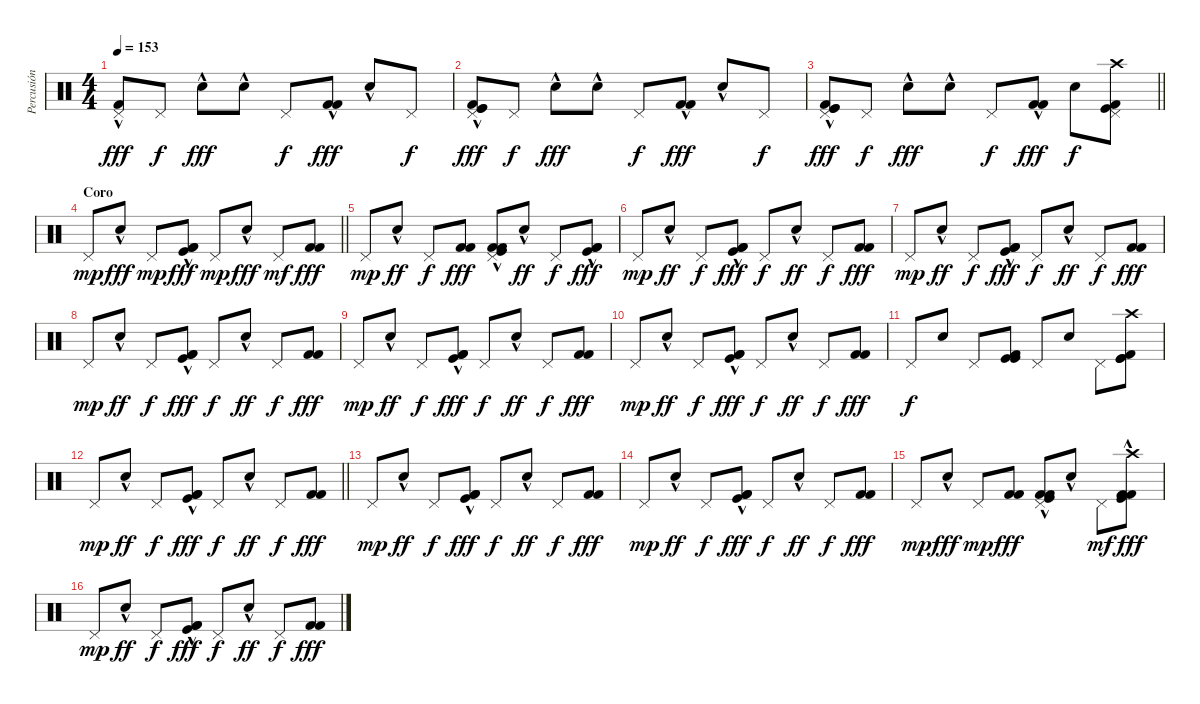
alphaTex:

\track ("Percusión (Javi Molina)" "Percusión ") {instrument percussion}
\staff {score}
\articulation defaults
\ts (4 4)
\tempo 153
\clef neutral
\ks c
("Kick (hit) 2"{hac} "Pedal Hi-Hat (hit)").8{dy fff} "Pedal Hi-Hat (hit)".8{dy f} "Electric Snare (hit)"{hac}.8{dy fff} "Electric Snare (hit)"{hac}.8 "Pedal Hi-Hat (hit)".8{dy f} ("Kick (hit) 2"{hac} "Kick (hit) 2"{hac}).8{dy fff} "Electric Snare (hit)"{hac}.8 "Pedal Hi-Hat (hit)".8{dy f} |
("Kick (hit)"{hac} "Kick (hit) 2"{hac} "Kick (hit)"{hac} "Pedal Hi-Hat (hit)").8{dy fff} "Pedal Hi-Hat (hit)".8{dy f} "Electric Snare (hit)"{hac}.8{dy fff} "Electric Snare (hit)"{hac}.8 "Pedal Hi-Hat (hit)".8{dy f} ("Kick (hit) 2"{hac} "Kick (hit) 2"{hac}).8{dy fff} "Electric Snare (hit)"{hac}.8 "Pedal Hi-Hat (hit)".8{dy f} |
\barLineRight lightlight
("Kick (hit)"{hac} "Kick (hit) 2"{hac} "Kick (hit)"{hac} "Pedal Hi-Hat (hit)").8{dy fff} "Pedal Hi-Hat (hit)".8{dy f} "Electric Snare (hit)"{hac}.8{dy fff} "Electric Snare (hit)"{hac}.8 "Pedal Hi-Hat (hit)".8{dy f} ("Kick (hit) 2"{hac} "Kick (hit) 2"{hac}).8{dy fff} "Electric Snare (hit)".8{dy f} ("Pedal Hi-Hat (hit)" "Kick (hit) 2" "Kick (hit)" "Crash high (hit)").8 |
\section ("" "Coro")
\barLineRight lightlight "Pedal Hi-Hat (hit)".8{dy mp} "Electric Snare (hit)"{hac}.8{dy fff} "Pedal Hi-Hat (hit)".8{dy mp}
("Kick (hit) 2"{hac} "Kick (hit) 2"{hac} "Kick (hit)"{hac}).8{dy fff} "Pedal Hi-Hat (hit)".8{dy mp} "Electric Snare (hit)"{hac}.8{dy fff} "Pedal Hi-Hat (hit)".8{dy mf} ("Kick (hit) 2" "Kick (hit) 2").8{dy fff} |
"Pedal Hi-Hat (hit)".8{dy mp} "Electric Snare (hit)"{hac}.8{dy ff} "Pedal Hi-Hat (hit)".8{dy f} ("Kick (hit) 2" "Kick (hit) 2").8{dy fff} ("Pedal Hi-Hat (hit)" "Kick (hit) 2"{hac} "Kick (hit) 2"{hac} "Kick (hit)"{hac}).8 "Electric Snare (hit)"{hac}.8{dy ff} "Pedal Hi-Hat (hit)".8{dy f} ("Kick (hit) 2"{hac} "Kick (hit) 2"{hac} "Kick (hit)"{hac}).8{dy fff} |
"Pedal Hi-Hat (hit)".8{dy mp} "Electric Snare (hit)"{hac}.8{dy ff} "Pedal Hi-Hat (hit)".8{dy f} ("Kick (hit) 2"{hac} "Kick (hit) 2"{hac} "Kick (hit)"{hac}).8{dy fff} "Pedal Hi-Hat (hit)".8{dy f} "Electric Snare (hit)"{hac}.8{dy ff} "Pedal Hi-Hat (hit)".8{dy f} ("Kick (hit) 2" "Kick (hit) 2").8{dy fff} |
"Pedal Hi-Hat (hit)".8{dy mp} "Electric Snare (hit)"{hac}.8{dy ff} "Pedal Hi-Hat (hit)".8{dy f} ("Kick (hit) 2"{hac} "Kick (hit) 2"{hac} "Kick (hit)"{hac}).8{dy fff} "Pedal Hi-Hat (hit)".8{dy f} "Electric Snare (hit)"{hac}.8{dy ff} "Pedal Hi-Hat (hit)".8{dy f} ("Kick (hit) 2" "Kick (hit) 2").8{dy fff} |
"Pedal Hi-Hat (hit)".8{dy mp} "Electric Snare (hit)"{hac}.8{dy ff} "Pedal Hi-Hat (hit)".8{dy f} ("Kick (hit) 2"{hac} "Kick (hit) 2"{hac} "Kick (hit)"{hac}).8{dy fff} "Pedal Hi-Hat (hit)".8{dy f} "Electric Snare (hit)"{hac}.8{dy ff} "Pedal Hi-Hat (hit)".8{dy f} ("Kick (hit) 2" "Kick (hit) 2").8{dy fff} |
"Pedal Hi-Hat (hit)".8{dy mp} "Electric Snare (hit)"{hac}.8{dy ff} "Pedal Hi-Hat (hit)".8{dy f} ("Kick (hit) 2"{hac} "Kick (hit) 2"{hac} "Kick (hit)"{hac}).8{dy fff} "Pedal Hi-Hat (hit)".8{dy f} "Electric Snare (hit)"{hac}.8{dy ff} "Pedal Hi-Hat (hit)".8{dy f} ("Kick (hit) 2" "Kick (hit) 2").8{dy fff} |
"Pedal Hi-Hat (hit)".8{dy mp} "Electric Snare (hit)"{hac}.8{dy ff} "Pedal Hi-Hat (hit)".8{dy f} ("Kick (hit) 2"{hac} "Kick (hit) 2"{hac} "Kick (hit)"{hac}).8{dy fff} "Pedal Hi-Hat (hit)".8{dy f} "Electric Snare (hit)"{hac}.8{dy ff} "Pedal Hi-Hat (hit)".8{dy f} ("Kick (hit) 2" "Kick (hit) 2").8{dy fff} |
"Pedal Hi-Hat (hit)".8{dy f} "Electric Snare (hit)".8 "Pedal Hi-Hat (hit)".8 ("Kick (hit) 2" "Kick (hit)" "Kick (hit)").8 "Pedal Hi-Hat (hit)".8 "Electric Snare (hit)".8 "Pedal Hi-Hat (hit)".8 ("Kick (hit) 2" "Kick (hit)" "Kick (hit)" "Crash high (hit)").8 |
\barLineRight lightlight "Pedal Hi-Hat (hit)".8{dy mp} "Electric Snare (hit)"{hac}.8{dy ff} "Pedal Hi-Hat (hit)".8{dy f}
("Kick (hit) 2"{hac} "Kick (hit) 2"{hac} "Kick (hit)"{hac}).8{dy fff} "Pedal Hi-Hat (hit)".8{dy f} "Electric Snare (hit)"{hac}.8{dy ff} "Pedal Hi-Hat (hit)".8{dy f} ("Kick (hit) 2" "Kick (hit) 2").8{dy fff} |
"Pedal Hi-Hat (hit)".8{dy mp} "Electric Snare (hit)"{hac}.8{dy ff} "Pedal Hi-Hat (hit)".8{dy f} ("Kick (hit) 2"{hac} "Kick (hit) 2"{hac} "Kick (hit)"{hac}).8{dy fff} "Pedal Hi-Hat (hit)".8{dy f} "Electric Snare (hit)"{hac}.8{dy ff} "Pedal Hi-Hat (hit)".8{dy f} ("Kick (hit) 2" "Kick (hit) 2").8{dy fff} |
"Pedal Hi-Hat (hit)".8{dy mp} "Electric Snare (hit)"{hac}.8{dy ff} "Pedal Hi-Hat (hit)".8{dy f} ("Kick (hit) 2"{hac} "Kick (hit) 2"{hac} "Kick (hit)"{hac}).8{dy fff} "Pedal Hi-Hat (hit)".8{dy f} "Electric Snare (hit)"{hac}.8{dy ff} "Pedal Hi-Hat (hit)".8{dy f} ("Kick (hit) 2" "Kick (hit) 2").8{dy fff} |
"Pedal Hi-Hat (hit)".8{dy mp} "Electric Snare (hit)"{hac}.8{dy fff} "Pedal Hi-Hat (hit)".8{dy mp} ("Kick (hit) 2" "Kick (hit) 2").8{dy fff} ("Pedal Hi-Hat (hit)" "Kick (hit) 2"{hac} "Kick (hit) 2"{hac} "Kick (hit)"{hac}).8 "Electric Snare (hit)"{hac}.8 "Pedal Hi-Hat (hit)".8{dy mf} ("Kick (hit) 2"{hac} "Kick (hit) 2"{hac} "Kick (hit)"{hac} "Crash high (hit)").8{dy fff} |
"Pedal Hi-Hat (hit)".8{dy mp} "Electric Snare (hit)"{hac}.8{dy ff} "Pedal Hi-Hat (hit)".8{dy f} ("Kick (hit) 2"{hac} "Kick (hit) 2"{hac} "Kick (hit)"{hac}).8{dy fff} "Pedal Hi-Hat (hit)".8{dy f} "Electric Snare (hit)"{hac}.8{dy ff} "Pedal Hi-Hat (hit)".8{dy f} ("Kick (hit) 2" "Kick (hit) 2").8{dy fff}
